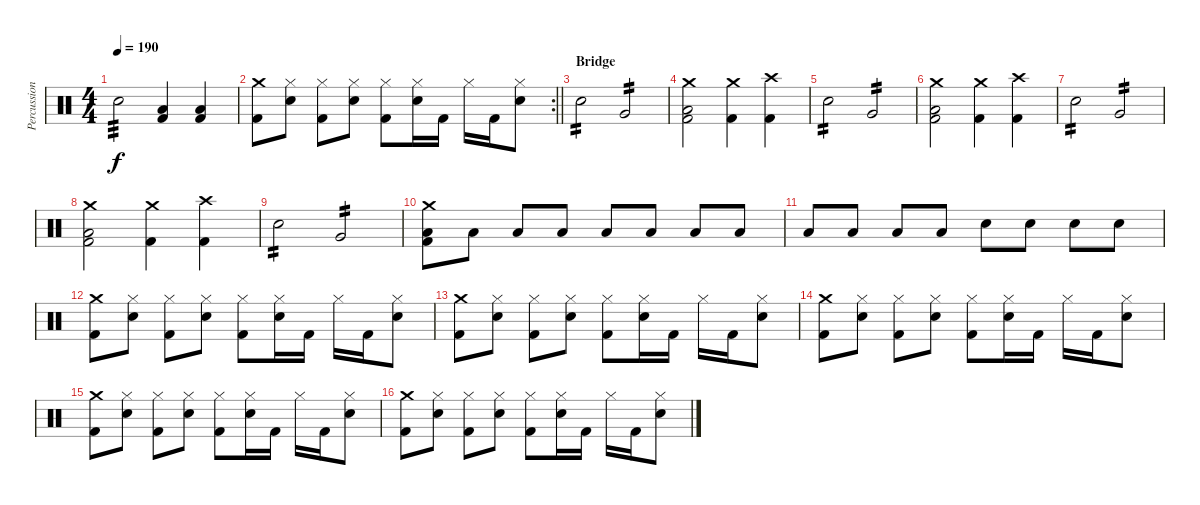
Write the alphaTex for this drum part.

\track ("Percussion" "Percussion") {instrument percussion}
\staff {score}
\articulation defaults
\ts (4 4)
\tempo 190
\clef neutral
\ks c "Electric Snare (hit)".2{tp 3 dy f}
("Low Floor Tom (hit)" "Kick (hit) 2").4 ("Low Floor Tom (hit)" "Kick (hit) 2").4 |
\rc 2
\barLineRight lightlight
("Crash medium (hit)" "Kick (hit) 2").8 ("Hi-Hat (closed)" "Electric Snare (hit)").8 ("Hi-Hat (closed)" "Kick (hit) 2").8 ("Hi-Hat (closed)" "Electric Snare (hit)").8 ("Hi-Hat (closed)" "Kick (hit) 2").8 ("Hi-Hat (closed)" "Electric Snare (hit)").16 "Kick (hit) 2".16 "Hi-Hat (closed)".16 "Kick (hit) 2".16 ("Hi-Hat (closed)" "Electric Snare (hit)").8 |
\section ("" "Bridge")
"Electric Snare (hit)".2{tp 2} "Very Low Tom (hit)".2{tp 2} |
("Kick (hit) 2" "Crash medium (hit)" "Low Floor Tom (hit)").2 ("Crash medium (hit)" "Kick (hit) 2").4 ("Crash high (hit)" "Kick (hit) 2").4 |
"Electric Snare (hit)".2{tp 2} "Very Low Tom (hit)".2{tp 2} |
("Kick (hit) 2" "Crash medium (hit)" "Low Floor Tom (hit)").2 ("Crash medium (hit)" "Kick (hit) 2").4 ("Crash high (hit)" "Kick (hit) 2").4 |
"Electric Snare (hit)".2{tp 2} "Very Low Tom (hit)".2{tp 2} |
("Kick (hit) 2" "Crash medium (hit)" "Low Floor Tom (hit)").2 ("Crash medium (hit)" "Kick (hit) 2").4 ("Crash high (hit)" "Kick (hit) 2").4 |
"Electric Snare (hit)".2{tp 2} "Very Low Tom (hit)".2{tp 2} |
("Kick (hit) 2" "Crash medium (hit)" "Low Floor Tom (hit)").8 "Low Floor Tom (hit)".8 "Low Floor Tom (hit)".8 "Low Floor Tom (hit)".8 "Low Floor Tom (hit)".8 "Low Floor Tom (hit)".8 "Low Floor Tom (hit)".8 "Low Floor Tom (hit)".8 |
"Low Floor Tom (hit)".8 "Low Floor Tom (hit)".8 "Low Floor Tom (hit)".8 "Low Floor Tom (hit)".8 "Electric Snare (hit)".8 "Electric Snare (hit)".8 "Electric Snare (hit)".8 "Electric Snare (hit)".8 |
("Crash medium (hit)" "Kick (hit) 2").8 ("Hi-Hat (closed)" "Electric Snare (hit)").8 ("Hi-Hat (closed)" "Kick (hit) 2").8 ("Hi-Hat (closed)" "Electric Snare (hit)").8 ("Hi-Hat (closed)" "Kick (hit) 2").8 ("Hi-Hat (closed)" "Electric Snare (hit)").16 "Kick (hit) 2".16 "Hi-Hat (closed)".16 "Kick (hit) 2".16 ("Hi-Hat (closed)" "Electric Snare (hit)").8 |
("Crash medium (hit)" "Kick (hit) 2").8 ("Hi-Hat (closed)" "Electric Snare (hit)").8 ("Hi-Hat (closed)" "Kick (hit) 2").8 ("Hi-Hat (closed)" "Electric Snare (hit)").8 ("Hi-Hat (closed)" "Kick (hit) 2").8 ("Hi-Hat (closed)" "Electric Snare (hit)").16 "Kick (hit) 2".16 "Hi-Hat (closed)".16 "Kick (hit) 2".16 ("Hi-Hat (closed)" "Electric Snare (hit)").8 |
("Crash medium (hit)" "Kick (hit) 2").8 ("Hi-Hat (closed)" "Electric Snare (hit)").8 ("Hi-Hat (closed)" "Kick (hit) 2").8 ("Hi-Hat (closed)" "Electric Snare (hit)").8 ("Hi-Hat (closed)" "Kick (hit) 2").8 ("Hi-Hat (closed)" "Electric Snare (hit)").16 "Kick (hit) 2".16 "Hi-Hat (closed)".16 "Kick (hit) 2".16 ("Hi-Hat (closed)" "Electric Snare (hit)").8 |
("Crash medium (hit)" "Kick (hit) 2").8 ("Hi-Hat (closed)" "Electric Snare (hit)").8 ("Hi-Hat (closed)" "Kick (hit) 2").8 ("Hi-Hat (closed)" "Electric Snare (hit)").8 ("Hi-Hat (closed)" "Kick (hit) 2").8 ("Hi-Hat (closed)" "Electric Snare (hit)").16 "Kick (hit) 2".16 "Hi-Hat (closed)".16 "Kick (hit) 2".16 ("Hi-Hat (closed)" "Electric Snare (hit)").8 |
("Crash medium (hit)" "Kick (hit) 2").8 ("Hi-Hat (closed)" "Electric Snare (hit)").8 ("Hi-Hat (closed)" "Kick (hit) 2").8 ("Hi-Hat (closed)" "Electric Snare (hit)").8 ("Hi-Hat (closed)" "Kick (hit) 2").8 ("Hi-Hat (closed)" "Electric Snare (hit)").16 "Kick (hit) 2".16 "Hi-Hat (closed)".16 "Kick (hit) 2".16 ("Hi-Hat (closed)" "Electric Snare (hit)").8
